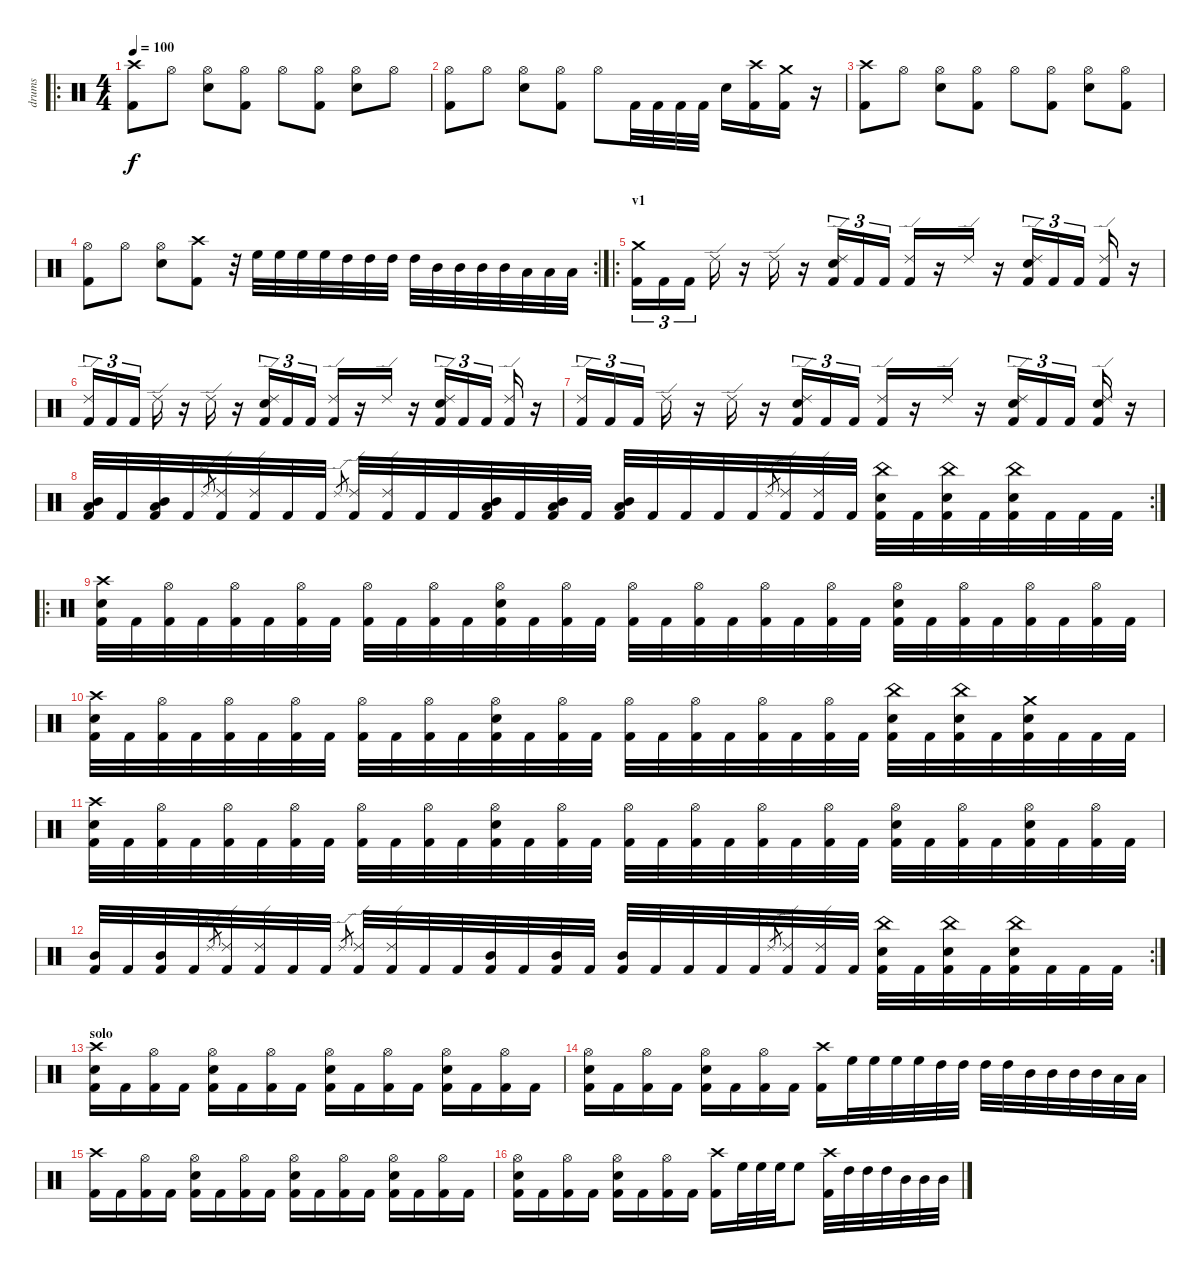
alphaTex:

\track ("drums" "drums") {instrument percussion}
\staff {score}
\articulation defaults
\ro
\ts (4 4)
\section ("" "")
\tempo 100
\clef neutral
\ks c
("Kick (hit) 2" "Crash high (hit)").8{dy f} "Hi-Hat (open)".8 ("Electric Snare (hit)" "Hi-Hat (open)").8 ("Kick (hit) 2" "Hi-Hat (open)").8 "Hi-Hat (open)".8 ("Kick (hit) 2" "Hi-Hat (open)").8 ("Electric Snare (hit)" "Hi-Hat (open)").8 "Hi-Hat (open)".8 |
("Hi-Hat (open)" "Kick (hit) 2").8 "Hi-Hat (open)".8 ("Hi-Hat (open)" "Electric Snare (hit)").8 ("Hi-Hat (open)" "Kick (hit) 2").8 "Hi-Hat (open)".8 "Kick (hit) 2".32 "Kick (hit) 2".32 "Kick (hit) 2".32 "Kick (hit) 2".32 "Electric Snare (hit)".16 ("Crash high (hit)" "Kick (hit) 2").16 ("Crash medium (hit)" "Kick (hit) 2").16 r.16 |
("Kick (hit) 2" "Crash high (hit)").8 "Hi-Hat (open)".8 ("Electric Snare (hit)" "Hi-Hat (open)").8 ("Kick (hit) 2" "Hi-Hat (open)").8 "Hi-Hat (open)".8 ("Kick (hit) 2" "Hi-Hat (open)").8 ("Electric Snare (hit)" "Hi-Hat (open)").8 ("Kick (hit) 2" "Hi-Hat (open)").8 |
\rc 2
("Hi-Hat (open)" "Kick (hit) 2").8 "Hi-Hat (open)".8 ("Hi-Hat (open)" "Electric Snare (hit)").8 ("Crash high (hit)" "Kick (hit) 2").8 r.32 "High Floor Tom (hit)".32 "High Floor Tom (hit)".32 "High Floor Tom (hit)".32 "High Floor Tom (hit)".32 "High Tom (hit)".32 "High Tom (hit)".32 "High Tom (hit)".32 "High Tom (hit)".32 "Mid Tom (hit)".32 "Mid Tom (hit)".32 "Mid Tom (hit)".32 "Mid Tom (hit)".32 "Low Tom (hit)".32 "Low Tom (hit)".32 "Low Tom (hit)".32 |
\ro
\section ("" "v1")
("Kick (hit) 2" "Crash medium (hit)").16{tu (3 2)} "Kick (hit) 2".16{tu (3 2)} "Kick (hit) 2".16{tu (3 2)} "Ride (edge) 2".16 r.16 "Ride (edge) 2".16 r.16 ("Kick (hit) 2" "Electric Snare (hit)" "Ride (edge) 2").16{tu (3 2)} "Kick (hit) 2".16{tu (3 2)} "Kick (hit) 2".16{tu (3 2)} ("Kick (hit) 2" "Ride (edge) 2").16 r.16 "Ride (edge) 2".16 r.16 ("Kick (hit) 2" "Electric Snare (hit)" "Ride (edge) 2").16{tu (3 2)} "Kick (hit) 2".16{tu (3 2)} "Kick (hit) 2".16{tu (3 2)} ("Kick (hit) 2" "Ride (edge) 2").16 r.16 |
("Kick (hit) 2" "Ride (edge) 2").16{tu (3 2)} "Kick (hit) 2".16{tu (3 2)} "Kick (hit) 2".16{tu (3 2)} "Ride (edge) 2".16 r.16 "Ride (edge) 2".16 r.16 ("Kick (hit) 2" "Electric Snare (hit)" "Ride (edge) 2").16{tu (3 2)} "Kick (hit) 2".16{tu (3 2)} "Kick (hit) 2".16{tu (3 2)} ("Kick (hit) 2" "Ride (edge) 2").16 r.16 "Ride (edge) 2".16 r.16 ("Kick (hit) 2" "Electric Snare (hit)" "Ride (edge) 2").16{tu (3 2)} "Kick (hit) 2".16{tu (3 2)} "Kick (hit) 2".16{tu (3 2)} ("Kick (hit) 2" "Ride (edge) 2").16 r.16 |
("Kick (hit) 2" "Ride (edge) 2").16{tu (3 2)} "Kick (hit) 2".16{tu (3 2)} "Kick (hit) 2".16{tu (3 2)} "Ride (edge) 2".16 r.16 "Ride (edge) 2".16 r.16 ("Kick (hit) 2" "Electric Snare (hit)" "Ride (edge) 2").16{tu (3 2)} "Kick (hit) 2".16{tu (3 2)} "Kick (hit) 2".16{tu (3 2)} ("Kick (hit) 2" "Ride (edge) 2").16 r.16 "Ride (edge) 2".16 r.16 ("Kick (hit) 2" "Electric Snare (hit)" "Ride (edge) 2").16{tu (3 2)} "Kick (hit) 2".16{tu (3 2)} "Kick (hit) 2".16{tu (3 2)} ("Kick (hit) 2" "Electric Snare (hit)" "Ride (edge) 2").16 r.16 |
\rc 2
("Kick (hit) 2" "Mid Tom (hit)" "Low Tom (hit)").32 "Kick (hit) 2".32 ("Kick (hit) 2" "Mid Tom (hit)" "Low Tom (hit)").32 "Kick (hit) 2".32 "Ride (edge) 2".8{gr} ("Kick (hit) 2" "Ride (edge) 2").32 ("Kick (hit) 2" "Ride (edge) 2").32 "Kick (hit) 2".32 "Kick (hit) 2".32 "Ride (edge) 2".8{gr} ("Kick (hit) 2" "Ride (edge) 2").32 ("Kick (hit) 2" "Ride (edge) 2").32 "Kick (hit) 2".32 "Kick (hit) 2".32 ("Kick (hit) 2" "Mid Tom (hit)" "Low Tom (hit)").32 "Kick (hit) 2".32 ("Kick (hit) 2" "Mid Tom (hit)" "Low Tom (hit)").32 "Kick (hit) 2".32 ("Kick (hit) 2" "Mid Tom (hit)" "Low Tom (hit)").32 "Kick (hit) 2".32 "Kick (hit) 2".32 "Kick (hit) 2".32 "Kick (hit) 2".32 "Ride (edge) 2".8{gr} ("Kick (hit) 2" "Ride (edge) 2").32 ("Kick (hit) 2" "Ride (edge) 2").32 "Kick (hit) 2".32 ("Kick (hit) 2" "Electric Snare (hit)" "China (hit)").32 "Kick (hit) 2".32 ("Kick (hit) 2" "Electric Snare (hit)" "China (hit)").32 "Kick (hit) 2".32 ("Kick (hit) 2" "Electric Snare (hit)" "China (hit)").32 "Kick (hit) 2".32 "Kick (hit) 2".32 "Kick (hit) 2".32 |
\ro
("Kick (hit) 2" "Electric Snare (hit)" "Crash high (hit)").32 "Kick (hit) 2".32 ("Kick (hit) 2" "Hi-Hat (open)").32 "Kick (hit) 2".32 ("Kick (hit) 2" "Hi-Hat (open)").32 "Kick (hit) 2".32 ("Kick (hit) 2" "Hi-Hat (open)").32 "Kick (hit) 2".32 ("Kick (hit) 2" "Hi-Hat (open)").32 "Kick (hit) 2".32 ("Kick (hit) 2" "Hi-Hat (open)").32 "Kick (hit) 2".32 ("Kick (hit) 2" "Electric Snare (hit)" "Hi-Hat (open)").32 "Kick (hit) 2".32 ("Kick (hit) 2" "Hi-Hat (open)").32 "Kick (hit) 2".32 ("Kick (hit) 2" "Hi-Hat (open)").32 "Kick (hit) 2".32 ("Kick (hit) 2" "Hi-Hat (open)").32 "Kick (hit) 2".32 ("Kick (hit) 2" "Hi-Hat (open)").32 "Kick (hit) 2".32 ("Kick (hit) 2" "Hi-Hat (open)").32 "Kick (hit) 2".32 ("Kick (hit) 2" "Electric Snare (hit)" "Hi-Hat (open)").32 "Kick (hit) 2".32 ("Kick (hit) 2" "Hi-Hat (open)").32 "Kick (hit) 2".32 ("Kick (hit) 2" "Hi-Hat (open)").32 "Kick (hit) 2".32 ("Kick (hit) 2" "Hi-Hat (open)").32 "Kick (hit) 2".32 |
("Kick (hit) 2" "Electric Snare (hit)" "Crash high (hit)").32 "Kick (hit) 2".32 ("Kick (hit) 2" "Hi-Hat (open)").32 "Kick (hit) 2".32 ("Kick (hit) 2" "Hi-Hat (open)").32 "Kick (hit) 2".32 ("Kick (hit) 2" "Hi-Hat (open)").32 "Kick (hit) 2".32 ("Kick (hit) 2" "Hi-Hat (open)").32 "Kick (hit) 2".32 ("Kick (hit) 2" "Hi-Hat (open)").32 "Kick (hit) 2".32 ("Kick (hit) 2" "Electric Snare (hit)" "Hi-Hat (open)").32 "Kick (hit) 2".32 ("Kick (hit) 2" "Hi-Hat (open)").32 "Kick (hit) 2".32 ("Kick (hit) 2" "Hi-Hat (open)").32 "Kick (hit) 2".32 ("Kick (hit) 2" "Hi-Hat (open)").32 "Kick (hit) 2".32 ("Kick (hit) 2" "Hi-Hat (open)").32 "Kick (hit) 2".32 ("Kick (hit) 2" "Hi-Hat (open)").32 "Kick (hit) 2".32 ("Kick (hit) 2" "Electric Snare (hit)" "China (hit)").32 "Kick (hit) 2".32 ("Kick (hit) 2" "Electric Snare (hit)" "China (hit)").32 "Kick (hit) 2".32 ("Kick (hit) 2" "Electric Snare (hit)" "Crash medium (hit)").32 "Kick (hit) 2".32 "Kick (hit) 2".32 "Kick (hit) 2".32 |
("Kick (hit) 2" "Electric Snare (hit)" "Crash high (hit)").32 "Kick (hit) 2".32 ("Kick (hit) 2" "Hi-Hat (open)").32 "Kick (hit) 2".32 ("Kick (hit) 2" "Hi-Hat (open)").32 "Kick (hit) 2".32 ("Kick (hit) 2" "Hi-Hat (open)").32 "Kick (hit) 2".32 ("Kick (hit) 2" "Hi-Hat (open)").32 "Kick (hit) 2".32 ("Kick (hit) 2" "Hi-Hat (open)").32 "Kick (hit) 2".32 ("Kick (hit) 2" "Electric Snare (hit)" "Hi-Hat (open)").32 "Kick (hit) 2".32 ("Kick (hit) 2" "Hi-Hat (open)").32 "Kick (hit) 2".32 ("Kick (hit) 2" "Hi-Hat (open)").32 "Kick (hit) 2".32 ("Kick (hit) 2" "Hi-Hat (open)").32 "Kick (hit) 2".32 ("Kick (hit) 2" "Hi-Hat (open)").32 "Kick (hit) 2".32 ("Kick (hit) 2" "Hi-Hat (open)").32 "Kick (hit) 2".32 ("Kick (hit) 2" "Electric Snare (hit)" "Hi-Hat (open)").32 "Kick (hit) 2".32 ("Kick (hit) 2" "Hi-Hat (open)").32 "Kick (hit) 2".32 ("Kick (hit) 2" "Electric Snare (hit)" "Hi-Hat (open)").32 "Kick (hit) 2".32 ("Kick (hit) 2" "Hi-Hat (open)").32 "Kick (hit) 2".32 |
\rc 2
("Kick (hit) 2" "Mid Tom (hit)").32 "Kick (hit) 2".32 ("Kick (hit) 2" "Mid Tom (hit)").32 "Kick (hit) 2".32 "Ride (edge) 2".8{gr} ("Kick (hit) 2" "Ride (edge) 2").32 ("Kick (hit) 2" "Ride (edge) 2").32 "Kick (hit) 2".32 "Kick (hit) 2".32 "Ride (edge) 2".8{gr} ("Kick (hit) 2" "Ride (edge) 2").32 ("Kick (hit) 2" "Ride (edge) 2").32 "Kick (hit) 2".32 "Kick (hit) 2".32 ("Kick (hit) 2" "Mid Tom (hit)").32 "Kick (hit) 2".32 ("Kick (hit) 2" "Mid Tom (hit)").32 "Kick (hit) 2".32 ("Kick (hit) 2" "Mid Tom (hit)").32 "Kick (hit) 2".32 "Kick (hit) 2".32 "Kick (hit) 2".32 "Kick (hit) 2".32 "Ride (edge) 2".8{gr} ("Kick (hit) 2" "Ride (edge) 2").32 ("Kick (hit) 2" "Ride (edge) 2").32 "Kick (hit) 2".32 ("Kick (hit) 2" "Electric Snare (hit)" "China (hit)").32 "Kick (hit) 2".32 ("Kick (hit) 2" "Electric Snare (hit)" "China (hit)").32 "Kick (hit) 2".32 ("Kick (hit) 2" "Electric Snare (hit)" "China (hit)").32 "Kick (hit) 2".32 "Kick (hit) 2".32 "Kick (hit) 2".32 |
\section ("" "solo")
("Crash high (hit)" "Electric Snare (hit)" "Kick (hit) 2").16 "Kick (hit) 2".16 ("Hi-Hat (open)" "Kick (hit) 2").16 "Kick (hit) 2".16 ("Hi-Hat (open)" "Electric Snare (hit)" "Kick (hit) 2").16 "Kick (hit) 2".16 ("Hi-Hat (open)" "Kick (hit) 2").16 "Kick (hit) 2".16 ("Hi-Hat (open)" "Electric Snare (hit)" "Kick (hit) 2").16 "Kick (hit) 2".16 ("Hi-Hat (open)" "Kick (hit) 2").16 "Kick (hit) 2".16 ("Hi-Hat (open)" "Electric Snare (hit)" "Kick (hit) 2").16 "Kick (hit) 2".16 ("Hi-Hat (open)" "Kick (hit) 2").16 "Kick (hit) 2".16 |
("Hi-Hat (open)" "Electric Snare (hit)" "Kick (hit) 2").16 "Kick (hit) 2".16 ("Hi-Hat (open)" "Kick (hit) 2").16 "Kick (hit) 2".16 ("Hi-Hat (open)" "Electric Snare (hit)" "Kick (hit) 2").16 "Kick (hit) 2".16 ("Hi-Hat (open)" "Kick (hit) 2").16 "Kick (hit) 2".16 ("Crash high (hit)" "Kick (hit) 2").16 "High Floor Tom (hit)".32 "High Floor Tom (hit)".32 "High Floor Tom (hit)".32 "High Floor Tom (hit)".32 "High Tom (hit)".32 "High Tom (hit)".32 "High Tom (hit)".32 "High Tom (hit)".32 "Mid Tom (hit)".32 "Mid Tom (hit)".32 "Mid Tom (hit)".32 "Mid Tom (hit)".32 "Low Tom (hit)".32 "Low Tom (hit)".32 |
("Crash high (hit)" "Kick (hit) 2").16 "Kick (hit) 2".16 ("Hi-Hat (open)" "Kick (hit) 2").16 "Kick (hit) 2".16 ("Hi-Hat (open)" "Electric Snare (hit)" "Kick (hit) 2").16 "Kick (hit) 2".16 ("Hi-Hat (open)" "Kick (hit) 2").16 "Kick (hit) 2".16 ("Hi-Hat (open)" "Electric Snare (hit)" "Kick (hit) 2").16 "Kick (hit) 2".16 ("Hi-Hat (open)" "Kick (hit) 2").16 "Kick (hit) 2".16 ("Hi-Hat (open)" "Electric Snare (hit)" "Kick (hit) 2").16 "Kick (hit) 2".16 ("Hi-Hat (open)" "Kick (hit) 2").16 "Kick (hit) 2".16 |
("Hi-Hat (open)" "Electric Snare (hit)" "Kick (hit) 2").16 "Kick (hit) 2".16 ("Hi-Hat (open)" "Kick (hit) 2").16 "Kick (hit) 2".16 ("Hi-Hat (open)" "Electric Snare (hit)" "Kick (hit) 2").16 "Kick (hit) 2".16 ("Hi-Hat (open)" "Kick (hit) 2").16 "Kick (hit) 2".16 ("Crash high (hit)" "Kick (hit) 2").16 "High Floor Tom (hit)".32 "High Floor Tom (hit)".32 "High Floor Tom (hit)".32 "High Floor Tom (hit)".8 ("Crash high (hit)" "Kick (hit) 2").32 "High Tom (hit)".32 "High Tom (hit)".32 "High Tom (hit)".32 "Mid Tom (hit)".32 "Mid Tom (hit)".32 "Mid Tom (hit)".32
